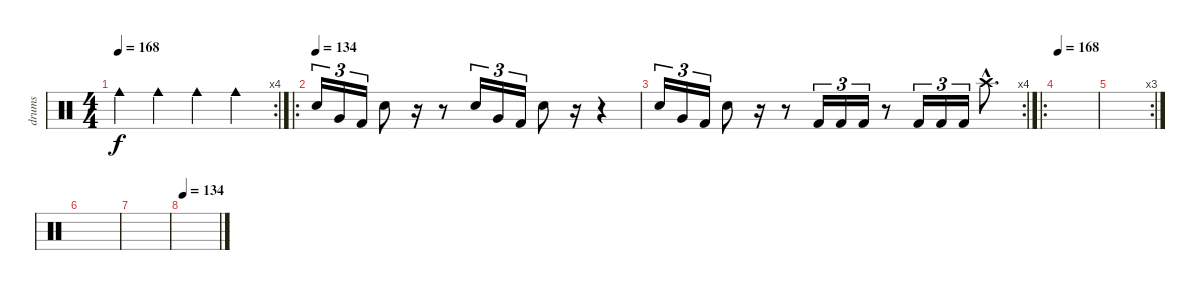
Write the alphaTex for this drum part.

\track ("drums" "drums") {instrument percussion}
\staff {score}
\articulation defaults
\rc 4
\ts (4 4)
\tempo 168
\clef neutral
\ks c "Cowbell medium (hit)".4{dy f} "Cowbell medium (hit)".4 "Cowbell medium (hit)".4 "Cowbell medium (hit)".4
|
\ro
\tempo (134)
"Snare (hit) 2".16{tu (3 2)} "Very Low Tom (hit)".16{tu (3 2)} "Kick (hit) 2".16{tu (3 2)} "Snare (hit) 2".8 r.16 r.8 "Snare (hit) 2".16{tu (3 2)} "Very Low Tom (hit)".16{tu (3 2)} "Kick (hit) 2".16{tu (3 2)} "Snare (hit) 2".8 r.16 r.4 |
\rc 4 "Snare (hit) 2".16{tu (3 2)} "Very Low Tom (hit)".16{tu (3 2)} "Kick (hit) 2".16{tu (3 2)} "Snare (hit) 2".8
r.16 r.8 "Kick (hit) 2".16{tu (3 2)} "Kick (hit) 2".16{tu (3 2)} "Kick (hit) 2".16{tu (3 2)} r.8 "Kick (hit) 2".16{tu (3 2)} "Kick (hit) 2".16{tu (3 2)} "Kick (hit) 2".16{tu (3 2)} "Crash high (hit)"{hac}.8{d} |
\ro
\tempo 168
|
\rc 3
|
|
|
\tempo 134
